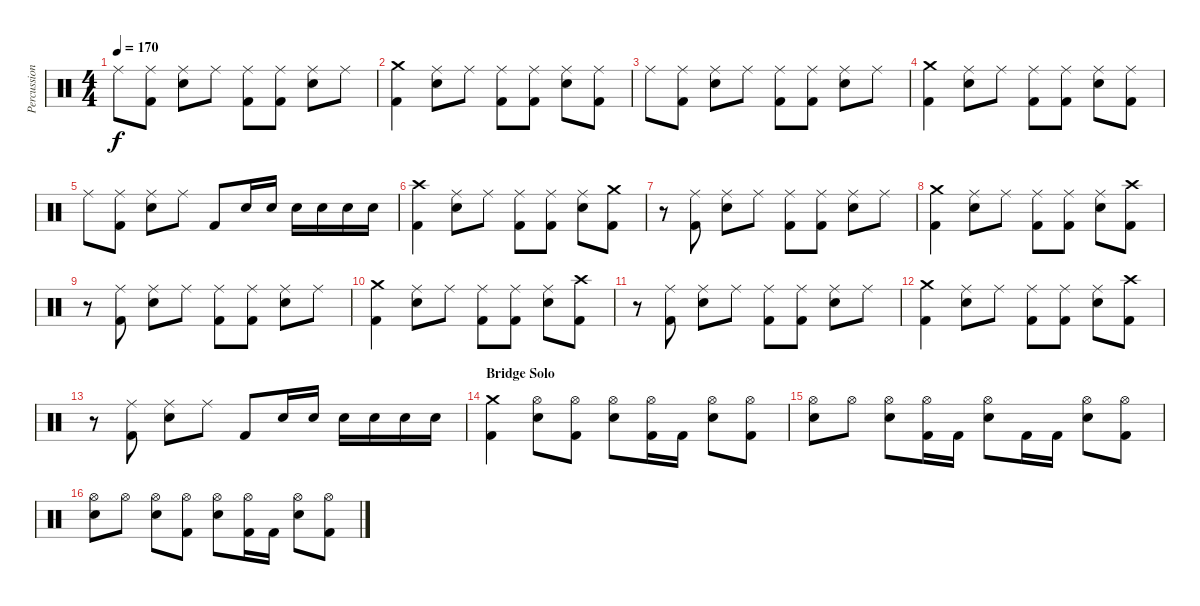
\track ("Percussion" "Percussion") {instrument percussion}
\staff {score}
\articulation defaults
\ts (4 4)
\tempo 170
\clef neutral
\ks c "Ride (middle)".8{dy f}
("Kick (hit) 2" "Ride (middle)").8 ("Electric Snare (hit)" "Ride (middle)").8 "Ride (middle)".8 ("Kick (hit) 2" "Ride (middle)").8 ("Kick (hit) 2" "Ride (middle)").8 ("Electric Snare (hit)" "Ride (middle)").8 "Ride (middle)".8 |
("Kick (hit) 2" "Crash medium (hit)").4 ("Electric Snare (hit)" "Ride (middle)").8 "Ride (middle)".8 ("Kick (hit) 2" "Ride (middle)").8 ("Kick (hit) 2" "Ride (middle)").8 ("Electric Snare (hit)" "Ride (middle)").8 ("Kick (hit) 2" "Ride (middle)").8 |
"Ride (middle)".8 ("Kick (hit) 2" "Ride (middle)").8 ("Electric Snare (hit)" "Ride (middle)").8 "Ride (middle)".8 ("Kick (hit) 2" "Ride (middle)").8 ("Kick (hit) 2" "Ride (middle)").8 ("Electric Snare (hit)" "Ride (middle)").8 "Ride (middle)".8 |
("Kick (hit) 2" "Crash medium (hit)").4 ("Electric Snare (hit)" "Ride (middle)").8 "Ride (middle)".8 ("Kick (hit) 2" "Ride (middle)").8 ("Kick (hit) 2" "Ride (middle)").8 ("Electric Snare (hit)" "Ride (middle)").8 ("Kick (hit) 2" "Ride (middle)").8 |
"Ride (middle)".8 ("Kick (hit) 2" "Ride (middle)").8 ("Electric Snare (hit)" "Ride (middle)").8 "Ride (middle)".8 "Kick (hit) 2".8 "Electric Snare (hit)".16 "Electric Snare (hit)".16 "Electric Snare (hit)".16 "Electric Snare (hit)".16 "Electric Snare (hit)".16 "Electric Snare (hit)".16 |
("Kick (hit) 2" "Crash high (hit)").4 ("Electric Snare (hit)" "Ride (middle)").8 "Ride (middle)".8 ("Kick (hit) 2" "Ride (middle)").8 ("Kick (hit) 2" "Ride (middle)").8 ("Electric Snare (hit)" "Ride (middle)").8 ("Kick (hit) 2" "Crash medium (hit)").8 |
r.8 ("Kick (hit) 2" "Ride (middle)").8 ("Electric Snare (hit)" "Ride (middle)").8 "Ride (middle)".8 ("Kick (hit) 2" "Ride (middle)").8 ("Kick (hit) 2" "Ride (middle)").8 ("Electric Snare (hit)" "Ride (middle)").8 "Ride (middle)".8 |
("Kick (hit) 2" "Crash medium (hit)").4 ("Electric Snare (hit)" "Ride (middle)").8 "Ride (middle)".8 ("Kick (hit) 2" "Ride (middle)").8 ("Kick (hit) 2" "Ride (middle)").8 ("Electric Snare (hit)" "Ride (middle)").8 ("Kick (hit) 2" "Crash high (hit)").8 |
r.8 ("Kick (hit) 2" "Ride (middle)").8 ("Electric Snare (hit)" "Ride (middle)").8 "Ride (middle)".8 ("Kick (hit) 2" "Ride (middle)").8 ("Kick (hit) 2" "Ride (middle)").8 ("Electric Snare (hit)" "Ride (middle)").8 "Ride (middle)".8 |
("Kick (hit) 2" "Crash medium (hit)").4 ("Electric Snare (hit)" "Ride (middle)").8 "Ride (middle)".8 ("Kick (hit) 2" "Ride (middle)").8 ("Kick (hit) 2" "Ride (middle)").8 ("Electric Snare (hit)" "Ride (middle)").8 ("Kick (hit) 2" "Crash high (hit)").8 |
r.8 ("Kick (hit) 2" "Ride (middle)").8 ("Electric Snare (hit)" "Ride (middle)").8 "Ride (middle)".8 ("Kick (hit) 2" "Ride (middle)").8 ("Kick (hit) 2" "Ride (middle)").8 ("Electric Snare (hit)" "Ride (middle)").8 "Ride (middle)".8 |
("Kick (hit) 2" "Crash medium (hit)").4 ("Electric Snare (hit)" "Ride (middle)").8 "Ride (middle)".8 ("Kick (hit) 2" "Ride (middle)").8 ("Kick (hit) 2" "Ride (middle)").8 ("Electric Snare (hit)" "Ride (middle)").8 ("Kick (hit) 2" "Crash high (hit)").8 |
r.8 ("Kick (hit) 2" "Ride (middle)").8 ("Electric Snare (hit)" "Ride (middle)").8 "Ride (middle)".8 "Kick (hit) 2".8 "Electric Snare (hit)".16 "Electric Snare (hit)".16 "Electric Snare (hit)".16 "Electric Snare (hit)".16 "Electric Snare (hit)".16 "Electric Snare (hit)".16 |
\section ("" "Bridge Solo")
("Kick (hit) 2" "Crash medium (hit)").4 ("Electric Snare (hit)" "Hi-Hat (open)").8 ("Kick (hit) 2" "Hi-Hat (open)").8 ("Electric Snare (hit)" "Hi-Hat (open)").8 ("Kick (hit) 2" "Hi-Hat (open)").16 "Kick (hit) 2".16 ("Electric Snare (hit)" "Hi-Hat (open)").8 ("Kick (hit) 2" "Hi-Hat (open)").8 |
("Electric Snare (hit)" "Hi-Hat (open)").8 "Hi-Hat (open)".8 ("Electric Snare (hit)" "Hi-Hat (open)").8 ("Kick (hit) 2" "Hi-Hat (open)").16 "Kick (hit) 2".16 ("Electric Snare (hit)" "Hi-Hat (open)").8 "Kick (hit) 2".16 "Kick (hit) 2".16 ("Electric Snare (hit)" "Hi-Hat (open)").8 ("Kick (hit) 2" "Hi-Hat (open)").8 |
("Electric Snare (hit)" "Hi-Hat (open)").8 "Hi-Hat (open)".8 ("Electric Snare (hit)" "Hi-Hat (open)").8 ("Kick (hit) 2" "Hi-Hat (open)").8 ("Electric Snare (hit)" "Hi-Hat (open)").8 ("Kick (hit) 2" "Hi-Hat (open)").16 "Kick (hit) 2".16 ("Electric Snare (hit)" "Hi-Hat (open)").8 ("Kick (hit) 2" "Hi-Hat (open)").8
